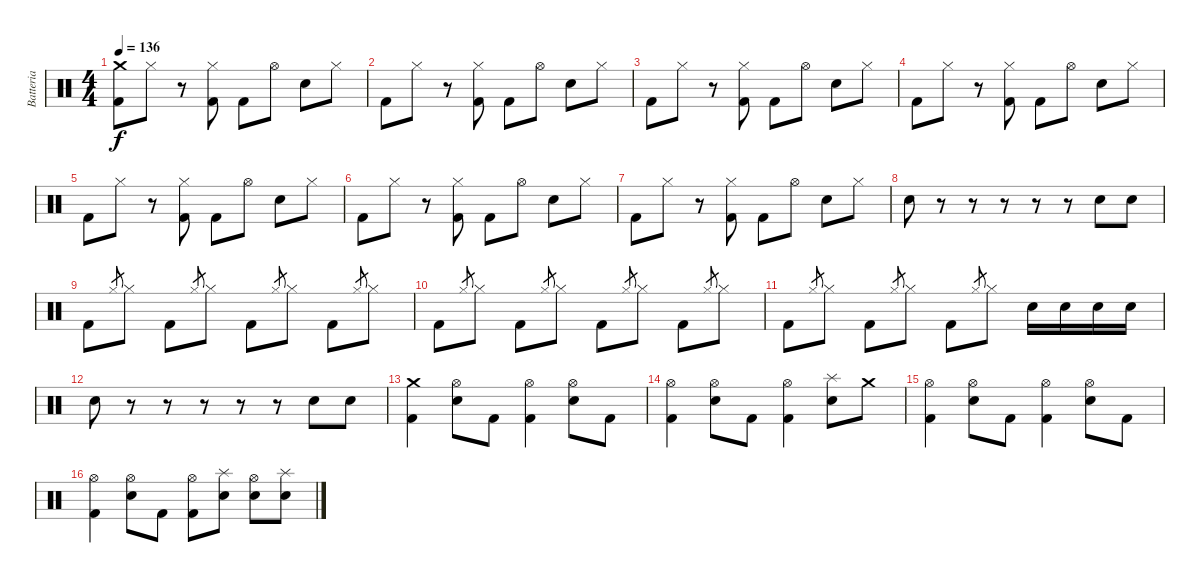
\track ("Batteria" "Batteria") {instrument percussion}
\staff {score}
\articulation defaults
\ts (4 4)
\tempo 136
\clef neutral
\ks c
("Crash medium (hit)" "Kick (hit) 2").8{dy f} "Hi-Hat (closed)".8 r.8 ("Hi-Hat (closed)" "Kick (hit) 2").8 "Kick (hit) 2".8 "Hi-Hat (open)".8 "Electric Snare (hit)".8 "Hi-Hat (closed)".8 |
"Kick (hit) 2".8 "Hi-Hat (closed)".8 r.8 ("Hi-Hat (closed)" "Kick (hit) 2").8 "Kick (hit) 2".8 "Hi-Hat (open)".8 "Electric Snare (hit)".8 "Hi-Hat (closed)".8 |
"Kick (hit) 2".8 "Hi-Hat (closed)".8 r.8 ("Hi-Hat (closed)" "Kick (hit) 2").8 "Kick (hit) 2".8 "Hi-Hat (open)".8 "Electric Snare (hit)".8 "Hi-Hat (closed)".8 |
"Kick (hit) 2".8 "Hi-Hat (closed)".8 r.8 ("Hi-Hat (closed)" "Kick (hit) 2").8 "Kick (hit) 2".8 "Hi-Hat (open)".8 "Electric Snare (hit)".8 "Hi-Hat (closed)".8 |
"Kick (hit) 2".8 "Hi-Hat (closed)".8 r.8 ("Hi-Hat (closed)" "Kick (hit) 2").8 "Kick (hit) 2".8 "Hi-Hat (open)".8 "Electric Snare (hit)".8 "Hi-Hat (closed)".8 |
"Kick (hit) 2".8 "Hi-Hat (closed)".8 r.8 ("Hi-Hat (closed)" "Kick (hit) 2").8 "Kick (hit) 2".8 "Hi-Hat (open)".8 "Electric Snare (hit)".8 "Hi-Hat (closed)".8 |
"Kick (hit) 2".8 "Hi-Hat (closed)".8 r.8 ("Hi-Hat (closed)" "Kick (hit) 2").8 "Kick (hit) 2".8 "Hi-Hat (open)".8 "Electric Snare (hit)".8 "Hi-Hat (closed)".8 |
"Electric Snare (hit)".8 r.8 r.8 r.8 r.8 r.8 "Electric Snare (hit)".8 "Electric Snare (hit)".8 |
"Kick (hit) 2".8 "Hi-Hat (closed)".8{gr} "Hi-Hat (closed)".8 "Kick (hit) 2".8 "Hi-Hat (closed)".8{gr} "Hi-Hat (closed)".8 "Kick (hit) 2".8 "Hi-Hat (closed)".8{gr} "Hi-Hat (closed)".8 "Kick (hit) 2".8 "Hi-Hat (closed)".8{gr} "Hi-Hat (closed)".8 |
"Kick (hit) 2".8 "Hi-Hat (closed)".8{gr} "Hi-Hat (closed)".8 "Kick (hit) 2".8 "Hi-Hat (closed)".8{gr} "Hi-Hat (closed)".8 "Kick (hit) 2".8 "Hi-Hat (closed)".8{gr} "Hi-Hat (closed)".8 "Kick (hit) 2".8 "Hi-Hat (closed)".8{gr} "Hi-Hat (closed)".8 |
"Kick (hit) 2".8 "Hi-Hat (closed)".8{gr} "Hi-Hat (closed)".8 "Kick (hit) 2".8 "Hi-Hat (closed)".8{gr} "Hi-Hat (closed)".8 "Kick (hit) 2".8 "Hi-Hat (closed)".8{gr} "Hi-Hat (closed)".8 "Snare (hit) 2".16 "Snare (hit) 2".16 "Snare (hit) 2".16 "Snare (hit) 2".16 |
"Snare (hit) 2".8 r.8 r.8 r.8 r.8 r.8 "Electric Snare (hit)".8 "Electric Snare (hit)".8 |
("Crash medium (hit)" "Kick (hit) 2").4 ("Hi-Hat (open)" "Electric Snare (hit)").8 "Kick (hit) 2".8 ("Hi-Hat (open)" "Kick (hit) 2").4 ("Hi-Hat (open)" "Electric Snare (hit)").8 "Kick (hit) 2".8 |
("Hi-Hat (open)" "Kick (hit) 2").4 ("Hi-Hat (open)" "Electric Snare (hit)").8 "Kick (hit) 2".8 ("Hi-Hat (open)" "Kick (hit) 2").4 ("Splash (hit)" "Electric Snare (hit)").8 "Crash medium (hit)".8 |
("Hi-Hat (open)" "Kick (hit) 2").4 ("Hi-Hat (open)" "Electric Snare (hit)").8 "Kick (hit) 2".8 ("Hi-Hat (open)" "Kick (hit) 2").4 ("Hi-Hat (open)" "Electric Snare (hit)").8 "Kick (hit) 2".8 |
("Hi-Hat (open)" "Kick (hit) 2").4 ("Hi-Hat (open)" "Electric Snare (hit)").8 "Kick (hit) 2".8 ("Hi-Hat (open)" "Kick (hit) 2").8 ("Splash (hit)" "Electric Snare (hit)").8 ("Hi-Hat (open)" "Electric Snare (hit)").8 ("Splash (hit)" "Electric Snare (hit)").8
